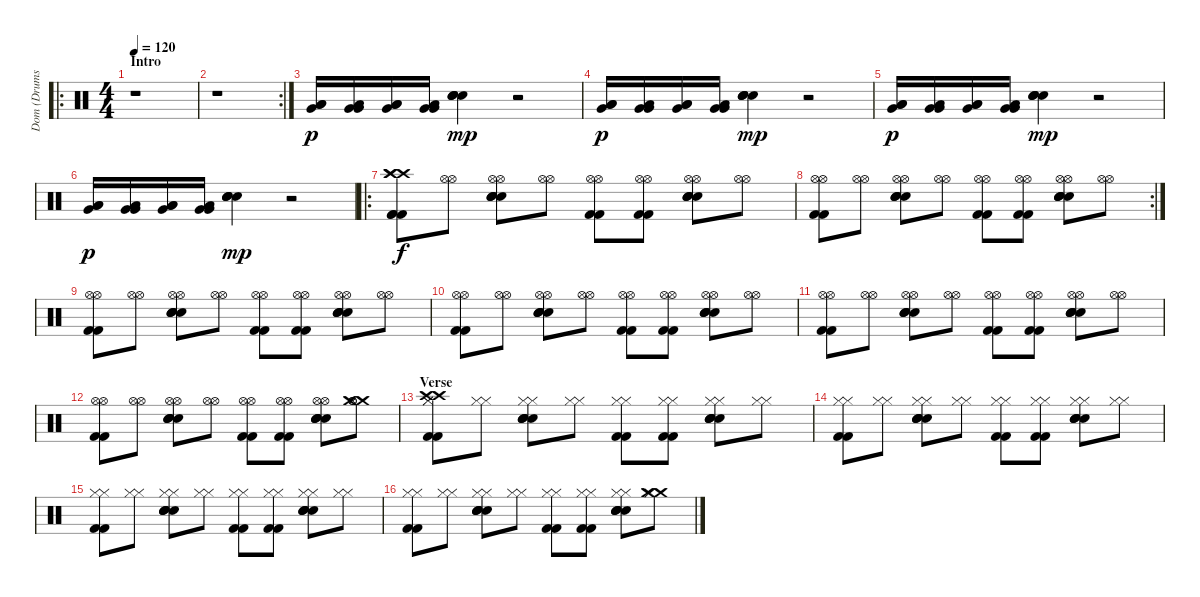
\track ("Dom (Drums)" "Dom (Drums") {instrument percussion}
\staff {score}
\articulation defaults
\ro
\ts (4 4)
\section ("" "Intro")
\tempo 120
\clef neutral
\ks c
r.1{dy p} |
\rc 2
r.1 |
("Very Low Tom (hit)" "Low Tom (hit)" "Low Tom (hit)").16 ("Low Tom (hit)" "Very Low Tom (hit)" "Very Low Tom (hit)").16 ("Very Low Tom (hit)" "Low Tom (hit)" "Low Tom (hit)").16 ("Low Tom (hit)" "Very Low Tom (hit)" "Very Low Tom (hit)").16 ("Electric Snare (hit)" "Electric Snare (hit)" "Snare (hit) 2" "Snare (hit) 2").4{dy mp} r.2 |
("Very Low Tom (hit)" "Low Tom (hit)" "Low Tom (hit)").16{dy p} ("Low Tom (hit)" "Very Low Tom (hit)" "Very Low Tom (hit)").16 ("Very Low Tom (hit)" "Low Tom (hit)" "Low Tom (hit)").16 ("Low Tom (hit)" "Very Low Tom (hit)" "Very Low Tom (hit)").16 ("Electric Snare (hit)" "Electric Snare (hit)" "Snare (hit) 2" "Snare (hit) 2").4{dy mp} r.2 |
("Very Low Tom (hit)" "Low Tom (hit)" "Low Tom (hit)").16{dy p} ("Low Tom (hit)" "Very Low Tom (hit)" "Very Low Tom (hit)").16 ("Very Low Tom (hit)" "Low Tom (hit)" "Low Tom (hit)").16 ("Low Tom (hit)" "Very Low Tom (hit)" "Very Low Tom (hit)").16 ("Electric Snare (hit)" "Electric Snare (hit)" "Snare (hit) 2" "Snare (hit) 2").4{dy mp} r.2 |
("Very Low Tom (hit)" "Low Tom (hit)" "Low Tom (hit)").16{dy p} ("Low Tom (hit)" "Very Low Tom (hit)" "Very Low Tom (hit)").16 ("Very Low Tom (hit)" "Low Tom (hit)" "Low Tom (hit)").16 ("Low Tom (hit)" "Very Low Tom (hit)" "Very Low Tom (hit)").16 ("Electric Snare (hit)" "Electric Snare (hit)" "Snare (hit) 2" "Snare (hit) 2").4{dy mp} r.2 |
\ro
("Crash high (hit)" "Crash high (hit)" "Crash high (hit)" "Kick (hit) 2" "Kick (hit) 2" "Kick (hit) 2").8{dy f} ("Hi-Hat (open)" "Hi-Hat (open)").8 ("Hi-Hat (open)" "Snare (hit) 2" "Snare (hit) 2" "Electric Snare (hit)" "Electric Snare (hit)" "Hi-Hat (open)").8 ("Hi-Hat (open)" "Hi-Hat (open)").8 ("Kick (hit) 2" "Kick (hit) 2" "Hi-Hat (open)" "Hi-Hat (open)").8 ("Kick (hit) 2" "Kick (hit) 2" "Hi-Hat (open)" "Hi-Hat (open)").8 ("Electric Snare (hit)" "Electric Snare (hit)" "Snare (hit) 2" "Snare (hit) 2" "Hi-Hat (open)" "Hi-Hat (open)").8 ("Hi-Hat (open)" "Hi-Hat (open)").8 |
\rc 2
("Kick (hit) 2" "Kick (hit) 2" "Hi-Hat (open)" "Hi-Hat (open)").8 ("Hi-Hat (open)" "Hi-Hat (open)").8 ("Snare (hit) 2" "Snare (hit) 2" "Electric Snare (hit)" "Electric Snare (hit)" "Hi-Hat (open)" "Hi-Hat (open)").8 ("Hi-Hat (open)" "Hi-Hat (open)").8 ("Kick (hit) 2" "Kick (hit) 2" "Hi-Hat (open)" "Hi-Hat (open)").8 ("Kick (hit) 2" "Kick (hit) 2" "Hi-Hat (open)" "Hi-Hat (open)").8 ("Electric Snare (hit)" "Electric Snare (hit)" "Snare (hit) 2" "Snare (hit) 2" "Hi-Hat (open)" "Hi-Hat (open)").8 ("Hi-Hat (open)" "Hi-Hat (open)").8 |
("Kick (hit) 2" "Kick (hit) 2" "Hi-Hat (open)" "Hi-Hat (open)").8 ("Hi-Hat (open)" "Hi-Hat (open)").8 ("Snare (hit) 2" "Snare (hit) 2" "Electric Snare (hit)" "Electric Snare (hit)" "Hi-Hat (open)" "Hi-Hat (open)").8 ("Hi-Hat (open)" "Hi-Hat (open)").8 ("Kick (hit) 2" "Kick (hit) 2" "Hi-Hat (open)" "Hi-Hat (open)").8 ("Kick (hit) 2" "Kick (hit) 2" "Hi-Hat (open)" "Hi-Hat (open)").8 ("Electric Snare (hit)" "Electric Snare (hit)" "Snare (hit) 2" "Snare (hit) 2" "Hi-Hat (open)" "Hi-Hat (open)").8 ("Hi-Hat (open)" "Hi-Hat (open)").8 |
("Kick (hit) 2" "Kick (hit) 2" "Hi-Hat (open)" "Hi-Hat (open)").8 ("Hi-Hat (open)" "Hi-Hat (open)").8 ("Snare (hit) 2" "Snare (hit) 2" "Electric Snare (hit)" "Electric Snare (hit)" "Hi-Hat (open)" "Hi-Hat (open)").8 ("Hi-Hat (open)" "Hi-Hat (open)").8 ("Kick (hit) 2" "Kick (hit) 2" "Hi-Hat (open)" "Hi-Hat (open)").8 ("Kick (hit) 2" "Kick (hit) 2" "Hi-Hat (open)" "Hi-Hat (open)").8 ("Electric Snare (hit)" "Electric Snare (hit)" "Snare (hit) 2" "Snare (hit) 2" "Hi-Hat (open)" "Hi-Hat (open)").8 ("Hi-Hat (open)" "Hi-Hat (open)").8 |
("Kick (hit) 2" "Kick (hit) 2" "Hi-Hat (open)" "Hi-Hat (open)").8 ("Hi-Hat (open)" "Hi-Hat (open)").8 ("Snare (hit) 2" "Snare (hit) 2" "Electric Snare (hit)" "Electric Snare (hit)" "Hi-Hat (open)" "Hi-Hat (open)").8 ("Hi-Hat (open)" "Hi-Hat (open)").8 ("Kick (hit) 2" "Kick (hit) 2" "Hi-Hat (open)" "Hi-Hat (open)").8 ("Kick (hit) 2" "Kick (hit) 2" "Hi-Hat (open)" "Hi-Hat (open)").8 ("Electric Snare (hit)" "Electric Snare (hit)" "Snare (hit) 2" "Snare (hit) 2" "Hi-Hat (open)" "Hi-Hat (open)").8 ("Hi-Hat (open)" "Hi-Hat (open)").8 |
("Kick (hit) 2" "Kick (hit) 2" "Hi-Hat (open)" "Hi-Hat (open)").8 ("Hi-Hat (open)" "Hi-Hat (open)").8 ("Snare (hit) 2" "Snare (hit) 2" "Electric Snare (hit)" "Electric Snare (hit)" "Hi-Hat (open)" "Hi-Hat (open)").8 ("Hi-Hat (open)" "Hi-Hat (open)").8 ("Kick (hit) 2" "Kick (hit) 2" "Hi-Hat (open)" "Hi-Hat (open)").8 ("Kick (hit) 2" "Kick (hit) 2" "Hi-Hat (open)" "Hi-Hat (open)").8 ("Electric Snare (hit)" "Electric Snare (hit)" "Snare (hit) 2" "Snare (hit) 2" "Hi-Hat (open)" "Hi-Hat (open)").8 ("Crash medium (hit)" "Crash medium (hit)" "Hi-Hat (open)" "Hi-Hat (open)").8 |
\section ("" "Verse")
("Crash high (hit)" "Crash high (hit)" "Kick (hit) 2" "Kick (hit) 2" "Hi-Hat (closed)" "Hi-Hat (closed)").8 ("Hi-Hat (closed)" "Hi-Hat (closed)").8 ("Snare (hit) 2" "Snare (hit) 2" "Electric Snare (hit)" "Electric Snare (hit)" "Hi-Hat (closed)" "Hi-Hat (closed)").8 ("Hi-Hat (closed)" "Hi-Hat (closed)").8 ("Kick (hit) 2" "Kick (hit) 2" "Hi-Hat (closed)" "Hi-Hat (closed)").8 ("Kick (hit) 2" "Kick (hit) 2" "Hi-Hat (closed)" "Hi-Hat (closed)").8 ("Snare (hit) 2" "Snare (hit) 2" "Electric Snare (hit)" "Electric Snare (hit)" "Hi-Hat (closed)" "Hi-Hat (closed)").8 ("Hi-Hat (closed)" "Hi-Hat (closed)").8 |
("Kick (hit) 2" "Kick (hit) 2" "Hi-Hat (closed)" "Hi-Hat (closed)").8 ("Hi-Hat (closed)" "Hi-Hat (closed)").8 ("Snare (hit) 2" "Snare (hit) 2" "Electric Snare (hit)" "Electric Snare (hit)" "Hi-Hat (closed)" "Hi-Hat (closed)").8 ("Hi-Hat (closed)" "Hi-Hat (closed)").8 ("Kick (hit) 2" "Kick (hit) 2" "Hi-Hat (closed)" "Hi-Hat (closed)").8 ("Kick (hit) 2" "Kick (hit) 2" "Hi-Hat (closed)" "Hi-Hat (closed)").8 ("Snare (hit) 2" "Snare (hit) 2" "Electric Snare (hit)" "Electric Snare (hit)" "Hi-Hat (closed)" "Hi-Hat (closed)").8 ("Hi-Hat (closed)" "Hi-Hat (closed)").8 |
("Kick (hit) 2" "Kick (hit) 2" "Hi-Hat (closed)" "Hi-Hat (closed)").8 ("Hi-Hat (closed)" "Hi-Hat (closed)").8 ("Snare (hit) 2" "Snare (hit) 2" "Electric Snare (hit)" "Electric Snare (hit)" "Hi-Hat (closed)" "Hi-Hat (closed)").8 ("Hi-Hat (closed)" "Hi-Hat (closed)").8 ("Kick (hit) 2" "Kick (hit) 2" "Hi-Hat (closed)" "Hi-Hat (closed)").8 ("Kick (hit) 2" "Kick (hit) 2" "Hi-Hat (closed)" "Hi-Hat (closed)").8 ("Snare (hit) 2" "Snare (hit) 2" "Electric Snare (hit)" "Electric Snare (hit)" "Hi-Hat (closed)" "Hi-Hat (closed)").8 ("Hi-Hat (closed)" "Hi-Hat (closed)").8 |
("Kick (hit) 2" "Kick (hit) 2" "Hi-Hat (closed)" "Hi-Hat (closed)").8 ("Hi-Hat (closed)" "Hi-Hat (closed)").8 ("Snare (hit) 2" "Snare (hit) 2" "Electric Snare (hit)" "Electric Snare (hit)" "Hi-Hat (closed)" "Hi-Hat (closed)").8 ("Hi-Hat (closed)" "Hi-Hat (closed)").8 ("Kick (hit) 2" "Kick (hit) 2" "Hi-Hat (closed)" "Hi-Hat (closed)").8 ("Kick (hit) 2" "Kick (hit) 2" "Hi-Hat (closed)" "Hi-Hat (closed)").8 ("Snare (hit) 2" "Snare (hit) 2" "Electric Snare (hit)" "Electric Snare (hit)" "Hi-Hat (closed)" "Hi-Hat (closed)").8 ("Crash medium (hit)" "Crash medium (hit)" "Hi-Hat (closed)" "Hi-Hat (closed)").8
